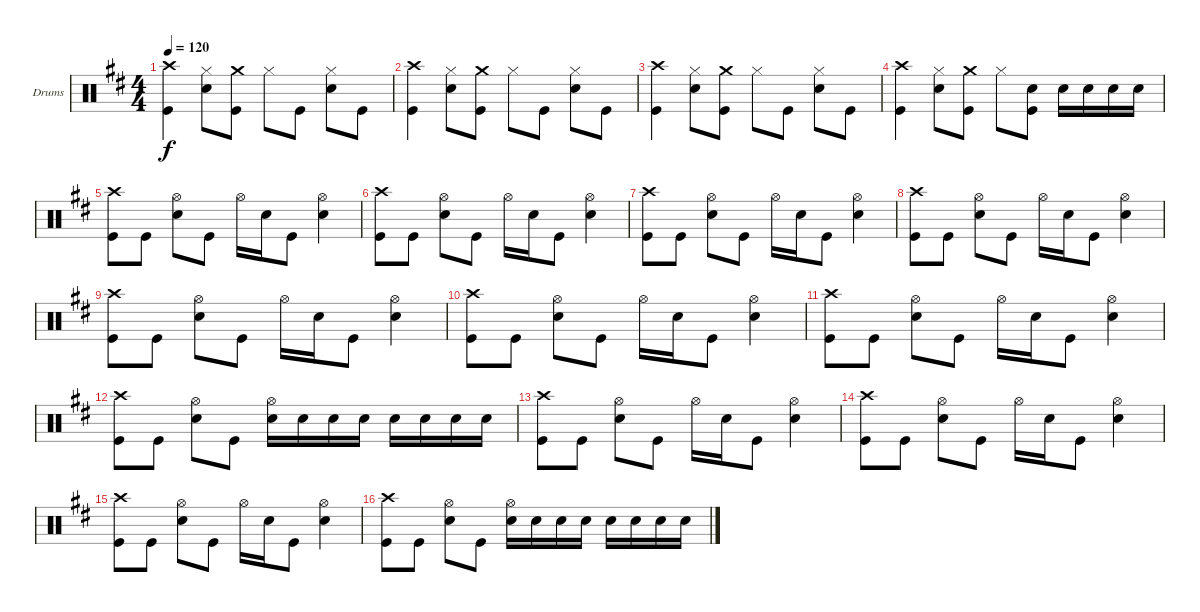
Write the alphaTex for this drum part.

\defaultSystemsLayout 4
\bracketExtendMode groupsimilarinstruments
\firstSystemTrackNameOrientation horizontal
\otherSystemsTrackNameOrientation horizontal
\track ("Drumkit" "Drums") {instrument percussion}
\staff {score}
\articulation defaults
\ts (4 4)
\tempo 120
\clef neutral
\scale
1.10088
\ks d
("Crash high (hit)" "Kick (hit)").4{dy f} ("Hi-Hat (closed)" "Snare (hit) 2").8 ("Crash medium (hit)" "Kick (hit)").8 "Hi-Hat (closed)".8 "Kick (hit)".8 ("Hi-Hat (closed)" "Snare (hit) 2").8 "Kick (hit)".8 |
\scale
0.949559 ("Crash high (hit)" "Kick (hit)").4 ("Hi-Hat (closed)" "Snare (hit) 2").8 ("Crash medium (hit)" "Kick (hit)").8 "Hi-Hat (closed)".8 "Kick (hit)".8 ("Hi-Hat (closed)" "Snare (hit) 2").8 "Kick (hit)".8 |
\scale
0.949559 ("Crash high (hit)" "Kick (hit)").4 ("Hi-Hat (closed)" "Snare (hit) 2").8 ("Crash medium (hit)" "Kick (hit)").8 "Hi-Hat (closed)".8 "Kick (hit)".8 ("Hi-Hat (closed)" "Snare (hit) 2").8 "Kick (hit)".8 |
\scale
1.10088 ("Crash high (hit)" "Kick (hit)").4 ("Hi-Hat (closed)" "Snare (hit) 2").8 ("Crash medium (hit)" "Kick (hit)").8 "Hi-Hat (closed)".8 ("Snare (hit) 2" "Kick (hit)").8 "Snare (hit) 2".16 "Snare (hit) 2".16 "Snare (hit) 2".16 "Snare (hit) 2".16 |
\scale
0.949559 ("Crash high (hit)" "Kick (hit)").8 "Kick (hit)".8 ("Hi-Hat (open)" "Snare (hit) 2").8 "Kick (hit)".8 "Hi-Hat (open)".16 "Snare (hit) 2".16 "Kick (hit)".8 ("Hi-Hat (open)" "Snare (hit) 2").4 |
\scale
0.949559 ("Crash high (hit)" "Kick (hit)").8 "Kick (hit)".8 ("Hi-Hat (open)" "Snare (hit) 2").8 "Kick (hit)".8 "Hi-Hat (open)".16 "Snare (hit) 2".16 "Kick (hit)".8 ("Hi-Hat (open)" "Snare (hit) 2").4 |
\scale
1.10088 ("Crash high (hit)" "Kick (hit)").8 "Kick (hit)".8 ("Hi-Hat (open)" "Snare (hit) 2").8 "Kick (hit)".8 "Hi-Hat (open)".16 "Snare (hit) 2".16 "Kick (hit)".8 ("Hi-Hat (open)" "Snare (hit) 2").4 |
\scale
0.949559 ("Crash high (hit)" "Kick (hit)").8 "Kick (hit)".8 ("Hi-Hat (open)" "Snare (hit) 2").8 "Kick (hit)".8 "Hi-Hat (open)".16 "Snare (hit) 2".16 "Kick (hit)".8 ("Hi-Hat (open)" "Snare (hit) 2").4 |
\scale
0.949559 ("Crash high (hit)" "Kick (hit)").8 "Kick (hit)".8 ("Hi-Hat (open)" "Snare (hit) 2").8 "Kick (hit)".8 "Hi-Hat (open)".16 "Snare (hit) 2".16 "Kick (hit)".8 ("Hi-Hat (open)" "Snare (hit) 2").4 |
\scale
1.10088 ("Crash high (hit)" "Kick (hit)").8 "Kick (hit)".8 ("Hi-Hat (open)" "Snare (hit) 2").8 "Kick (hit)".8 "Hi-Hat (open)".16 "Snare (hit) 2".16 "Kick (hit)".8 ("Hi-Hat (open)" "Snare (hit) 2").4 |
\scale
0.949559 ("Crash high (hit)" "Kick (hit)").8 "Kick (hit)".8 ("Hi-Hat (open)" "Snare (hit) 2").8 "Kick (hit)".8 "Hi-Hat (open)".16 "Snare (hit) 2".16 "Kick (hit)".8 ("Hi-Hat (open)" "Snare (hit) 2").4 |
\scale
0.949559 ("Crash high (hit)" "Kick (hit)").8 "Kick (hit)".8 ("Hi-Hat (open)" "Snare (hit) 2").8 "Kick (hit)".8 ("Hi-Hat (open)" "Snare (hit) 2").16 "Snare (hit) 2".16 "Snare (hit) 2".16 "Snare (hit) 2".16 "Snare (hit) 2".16 "Snare (hit) 2".16 "Snare (hit) 2".16 "Snare (hit) 2".16 |
\scale
1.10088 ("Crash high (hit)" "Kick (hit)").8 "Kick (hit)".8 ("Hi-Hat (open)" "Snare (hit) 2").8 "Kick (hit)".8 "Hi-Hat (open)".16 "Snare (hit) 2".16 "Kick (hit)".8 ("Hi-Hat (open)" "Snare (hit) 2").4 |
\scale
0.949559 ("Crash high (hit)" "Kick (hit)").8 "Kick (hit)".8 ("Hi-Hat (open)" "Snare (hit) 2").8 "Kick (hit)".8 "Hi-Hat (open)".16 "Snare (hit) 2".16 "Kick (hit)".8 ("Hi-Hat (open)" "Snare (hit) 2").4 |
\scale
0.949559 ("Crash high (hit)" "Kick (hit)").8 "Kick (hit)".8 ("Hi-Hat (open)" "Snare (hit) 2").8 "Kick (hit)".8 "Hi-Hat (open)".16 "Snare (hit) 2".16 "Kick (hit)".8 ("Hi-Hat (open)" "Snare (hit) 2").4 |
\scale
1.10088 ("Crash high (hit)" "Kick (hit)").8 "Kick (hit)".8 ("Hi-Hat (open)" "Snare (hit) 2").8 "Kick (hit)".8 ("Hi-Hat (open)" "Snare (hit) 2").16 "Snare (hit) 2".16 "Snare (hit) 2".16 "Snare (hit) 2".16 "Snare (hit) 2".16 "Snare (hit) 2".16 "Snare (hit) 2".16 "Snare (hit) 2".16
